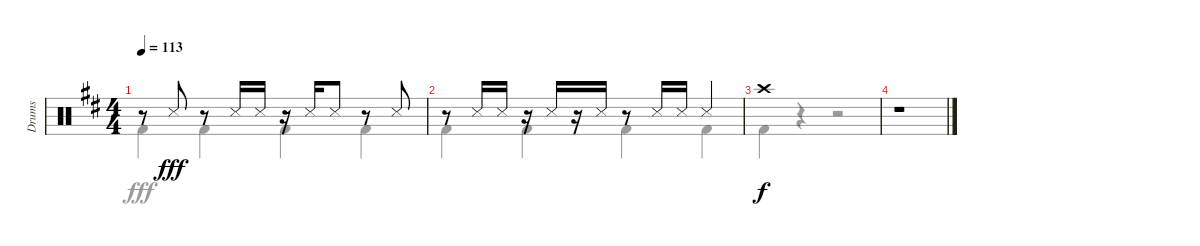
\track ("Drums" "Drums") {instrument percussion}
\staff {score}
\articulation defaults
\voice
\ts (4 4)
\tempo 113
\clef neutral
\ks d
r.8{dy fff} "Snare (side stick) 3".8 r.8 "Snare (side stick) 3".16 "Snare (side stick) 3".16 r.16 "Snare (side stick) 3".16 "Snare (side stick) 3".8 r.8 "Snare (side stick) 3".8 |
r.8 "Snare (side stick) 3".16 "Snare (side stick) 3".16 r.16 "Snare (side stick) 3".16 r.16 "Snare (side stick) 3".16 r.8 "Snare (side stick) 3".16 "Snare (side stick) 3".16 "Snare (side stick) 3".4 |
"Crash high (hit)".1{dy f} |
r.1
\voice
\clef neutral
\ottava regular
\simile none
\ks d "Kick (hit) 2".4{dy fff} "Kick (hit) 2".4 "Kick (hit) 2".4 "Kick (hit) 2".4
|
"Kick (hit) 2".4 "Kick (hit) 2".4 "Kick (hit) 2".4 "Kick (hit) 2".4 |
"Kick (hit) 2".4 r.4 r.2 |
r.1
